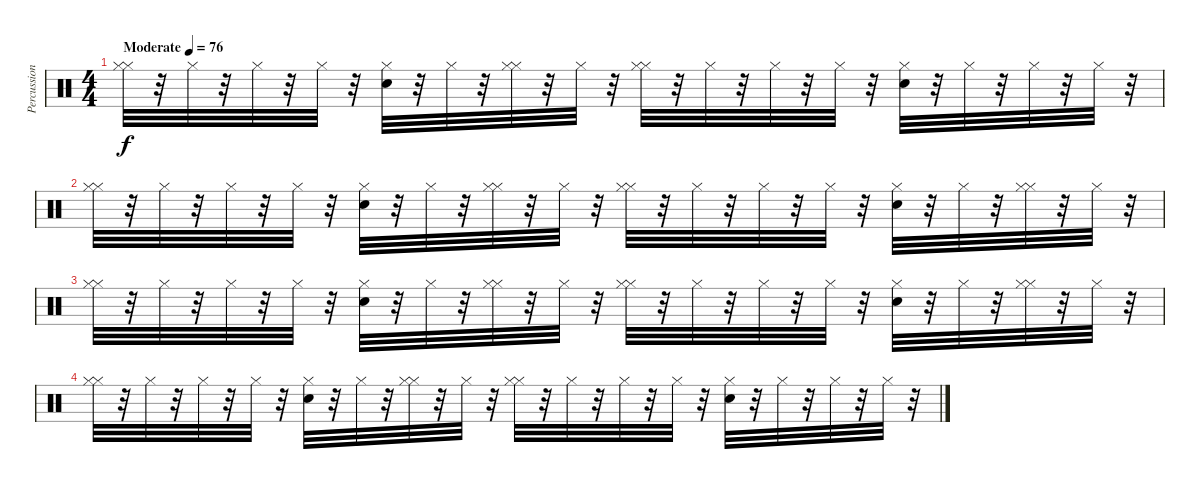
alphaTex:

\track ("Percussion" "Percussion") {instrument percussion}
\staff {score}
\articulation defaults
\ts (4 4)
\tempo (76 "Moderate")
\clef neutral
\ks c
("Hi-Hat (closed)" "Hi-Hat (closed)").32{dy f} r.32 "Hi-Hat (closed)".32 r.32 "Hi-Hat (closed)".32 r.32 "Hi-Hat (closed)".32 r.32 ("Hi-Hat (closed)" "Hand Clap (hit)").32 r.32 "Hi-Hat (closed)".32 r.32 ("Hi-Hat (closed)" "Hi-Hat (closed)").32 r.32 "Hi-Hat (closed)".32 r.32 ("Hi-Hat (closed)" "Hi-Hat (closed)").32 r.32 "Hi-Hat (closed)".32 r.32 "Hi-Hat (closed)".32 r.32 "Hi-Hat (closed)".32 r.32 ("Hi-Hat (closed)" "Hand Clap (hit)").32 r.32 "Hi-Hat (closed)".32 r.32 "Hi-Hat (closed)".32 r.32 "Hi-Hat (closed)".32 r.32 |
("Hi-Hat (closed)" "Hi-Hat (closed)").32 r.32 "Hi-Hat (closed)".32 r.32 "Hi-Hat (closed)".32 r.32 "Hi-Hat (closed)".32 r.32 ("Hi-Hat (closed)" "Hand Clap (hit)").32 r.32 "Hi-Hat (closed)".32 r.32 ("Hi-Hat (closed)" "Hi-Hat (closed)").32 r.32 "Hi-Hat (closed)".32 r.32 ("Hi-Hat (closed)" "Hi-Hat (closed)").32 r.32 "Hi-Hat (closed)".32 r.32 "Hi-Hat (closed)".32 r.32 "Hi-Hat (closed)".32 r.32 ("Hi-Hat (closed)" "Hand Clap (hit)").32 r.32 "Hi-Hat (closed)".32 r.32 ("Hi-Hat (closed)" "Hi-Hat (closed)").32 r.32 "Hi-Hat (closed)".32 r.32 |
("Hi-Hat (closed)" "Hi-Hat (closed)").32 r.32 "Hi-Hat (closed)".32 r.32 "Hi-Hat (closed)".32 r.32 "Hi-Hat (closed)".32 r.32 ("Hi-Hat (closed)" "Hand Clap (hit)").32 r.32 "Hi-Hat (closed)".32 r.32 ("Hi-Hat (closed)" "Hi-Hat (closed)").32 r.32 "Hi-Hat (closed)".32 r.32 ("Hi-Hat (closed)" "Hi-Hat (closed)").32 r.32 "Hi-Hat (closed)".32 r.32 "Hi-Hat (closed)".32 r.32 "Hi-Hat (closed)".32 r.32 ("Hi-Hat (closed)" "Hand Clap (hit)").32 r.32 "Hi-Hat (closed)".32 r.32 ("Hi-Hat (closed)" "Hi-Hat (closed)").32 r.32 "Hi-Hat (closed)".32 r.32 |
("Hi-Hat (closed)" "Hi-Hat (closed)").32 r.32 "Hi-Hat (closed)".32 r.32 "Hi-Hat (closed)".32 r.32 "Hi-Hat (closed)".32 r.32 ("Hi-Hat (closed)" "Hand Clap (hit)").32 r.32 "Hi-Hat (closed)".32 r.32 ("Hi-Hat (closed)" "Hi-Hat (closed)").32 r.32 "Hi-Hat (closed)".32 r.32 ("Hi-Hat (closed)" "Hi-Hat (closed)").32 r.32 "Hi-Hat (closed)".32 r.32 "Hi-Hat (closed)".32 r.32 "Hi-Hat (closed)".32 r.32 ("Hi-Hat (closed)" "Hand Clap (hit)").32 r.32 "Hi-Hat (closed)".32 r.32 "Hi-Hat (closed)".32 r.32 "Hi-Hat (closed)".32 r.32
